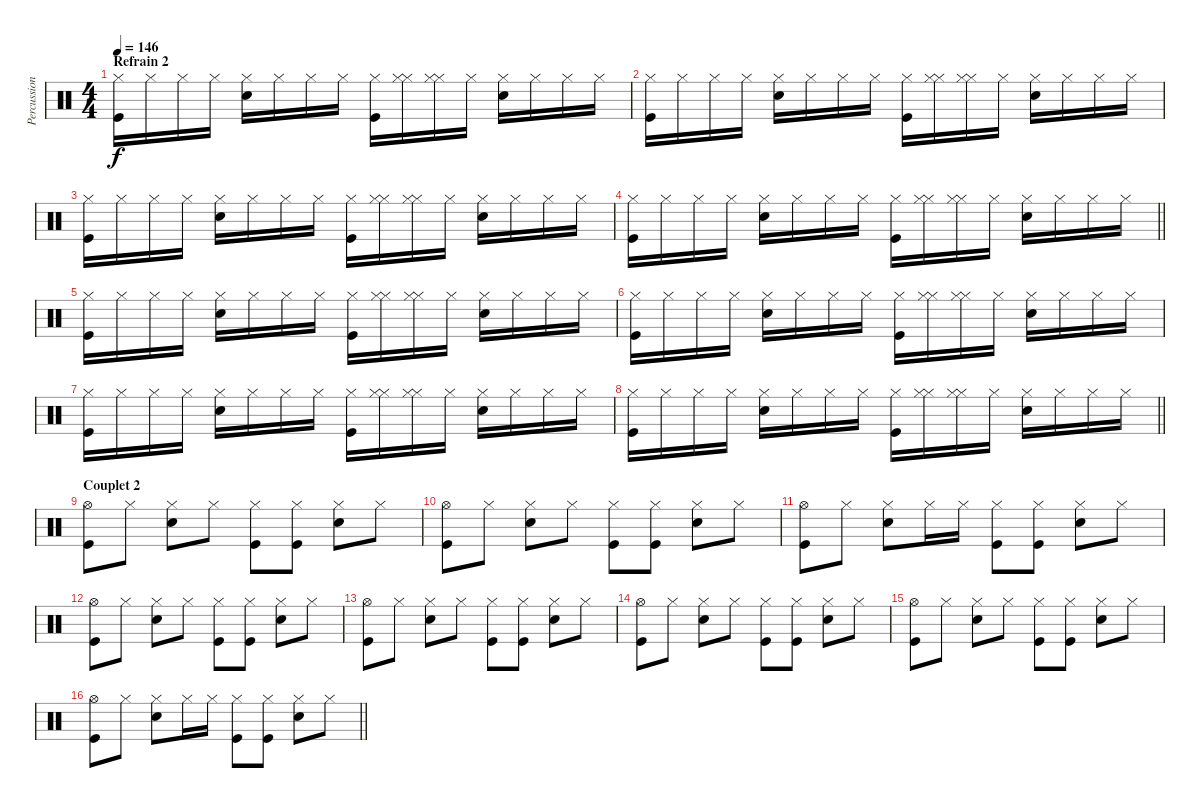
\track ("Percussions" "Percussion") {instrument percussion}
\staff {score}
\articulation defaults
\ts (4 4)
\section ("" "Refrain 2")
\tempo 146
\clef neutral
\ks c
("Hi-Hat (closed)" "Kick (hit)").16{dy f} "Hi-Hat (closed)".16 "Hi-Hat (closed)".16 "Hi-Hat (closed)".16 ("Hi-Hat (closed)" "Snare (hit) 2").16 "Hi-Hat (closed)".16 "Hi-Hat (closed)".16 "Hi-Hat (closed)".16 ("Hi-Hat (closed)" "Kick (hit)").16 ("Hi-Hat (closed)" "Hi-Hat (closed)").16 ("Hi-Hat (closed)" "Hi-Hat (closed)").16 "Hi-Hat (closed)".16 ("Hi-Hat (closed)" "Snare (hit) 2").16 "Hi-Hat (closed)".16 "Hi-Hat (closed)".16 "Hi-Hat (closed)".16 |
("Hi-Hat (closed)" "Kick (hit)").16 "Hi-Hat (closed)".16 "Hi-Hat (closed)".16 "Hi-Hat (closed)".16 ("Hi-Hat (closed)" "Snare (hit) 2").16 "Hi-Hat (closed)".16 "Hi-Hat (closed)".16 "Hi-Hat (closed)".16 ("Hi-Hat (closed)" "Kick (hit)").16 ("Hi-Hat (closed)" "Hi-Hat (closed)").16 ("Hi-Hat (closed)" "Hi-Hat (closed)").16 "Hi-Hat (closed)".16 ("Hi-Hat (closed)" "Snare (hit) 2").16 "Hi-Hat (closed)".16 "Hi-Hat (closed)".16 "Hi-Hat (closed)".16 |
("Hi-Hat (closed)" "Kick (hit)").16 "Hi-Hat (closed)".16 "Hi-Hat (closed)".16 "Hi-Hat (closed)".16 ("Hi-Hat (closed)" "Snare (hit) 2").16 "Hi-Hat (closed)".16 "Hi-Hat (closed)".16 "Hi-Hat (closed)".16 ("Hi-Hat (closed)" "Kick (hit)").16 ("Hi-Hat (closed)" "Hi-Hat (closed)").16 ("Hi-Hat (closed)" "Hi-Hat (closed)").16 "Hi-Hat (closed)".16 ("Hi-Hat (closed)" "Snare (hit) 2").16 "Hi-Hat (closed)".16 "Hi-Hat (closed)".16 "Hi-Hat (closed)".16 |
\barLineRight lightlight
("Hi-Hat (closed)" "Kick (hit)").16 "Hi-Hat (closed)".16 "Hi-Hat (closed)".16 "Hi-Hat (closed)".16 ("Hi-Hat (closed)" "Snare (hit) 2").16 "Hi-Hat (closed)".16 "Hi-Hat (closed)".16 "Hi-Hat (closed)".16 ("Hi-Hat (closed)" "Kick (hit)").16 ("Hi-Hat (closed)" "Hi-Hat (closed)").16 ("Hi-Hat (closed)" "Hi-Hat (closed)").16 "Hi-Hat (closed)".16 ("Hi-Hat (closed)" "Snare (hit) 2").16 "Hi-Hat (closed)".16 "Hi-Hat (closed)".16 "Hi-Hat (closed)".16 |
("Hi-Hat (closed)" "Kick (hit)").16 "Hi-Hat (closed)".16 "Hi-Hat (closed)".16 "Hi-Hat (closed)".16 ("Hi-Hat (closed)" "Snare (hit) 2").16 "Hi-Hat (closed)".16 "Hi-Hat (closed)".16 "Hi-Hat (closed)".16 ("Hi-Hat (closed)" "Kick (hit)").16 ("Hi-Hat (closed)" "Hi-Hat (closed)").16 ("Hi-Hat (closed)" "Hi-Hat (closed)").16 "Hi-Hat (closed)".16 ("Hi-Hat (closed)" "Snare (hit) 2").16 "Hi-Hat (closed)".16 "Hi-Hat (closed)".16 "Hi-Hat (closed)".16 |
("Hi-Hat (closed)" "Kick (hit)").16 "Hi-Hat (closed)".16 "Hi-Hat (closed)".16 "Hi-Hat (closed)".16 ("Hi-Hat (closed)" "Snare (hit) 2").16 "Hi-Hat (closed)".16 "Hi-Hat (closed)".16 "Hi-Hat (closed)".16 ("Hi-Hat (closed)" "Kick (hit)").16 ("Hi-Hat (closed)" "Hi-Hat (closed)").16 ("Hi-Hat (closed)" "Hi-Hat (closed)").16 "Hi-Hat (closed)".16 ("Hi-Hat (closed)" "Snare (hit) 2").16 "Hi-Hat (closed)".16 "Hi-Hat (closed)".16 "Hi-Hat (closed)".16 |
("Hi-Hat (closed)" "Kick (hit)").16 "Hi-Hat (closed)".16 "Hi-Hat (closed)".16 "Hi-Hat (closed)".16 ("Hi-Hat (closed)" "Snare (hit) 2").16 "Hi-Hat (closed)".16 "Hi-Hat (closed)".16 "Hi-Hat (closed)".16 ("Hi-Hat (closed)" "Kick (hit)").16 ("Hi-Hat (closed)" "Hi-Hat (closed)").16 ("Hi-Hat (closed)" "Hi-Hat (closed)").16 "Hi-Hat (closed)".16 ("Hi-Hat (closed)" "Snare (hit) 2").16 "Hi-Hat (closed)".16 "Hi-Hat (closed)".16 "Hi-Hat (closed)".16 |
\barLineRight lightlight
("Hi-Hat (closed)" "Kick (hit)").16 "Hi-Hat (closed)".16 "Hi-Hat (closed)".16 "Hi-Hat (closed)".16 ("Hi-Hat (closed)" "Snare (hit) 2").16 "Hi-Hat (closed)".16 "Hi-Hat (closed)".16 "Hi-Hat (closed)".16 ("Hi-Hat (closed)" "Kick (hit)").16 ("Hi-Hat (closed)" "Hi-Hat (closed)").16 ("Hi-Hat (closed)" "Hi-Hat (closed)").16 "Hi-Hat (closed)".16 ("Hi-Hat (closed)" "Snare (hit) 2").16 "Hi-Hat (closed)".16 "Hi-Hat (closed)".16 "Hi-Hat (closed)".16 |
\section ("" "Couplet 2")
("Hi-Hat (open)" "Kick (hit)").8 "Hi-Hat (closed)".8 ("Hi-Hat (closed)" "Snare (hit) 2").8 "Hi-Hat (closed)".8 ("Hi-Hat (closed)" "Kick (hit)").8 ("Hi-Hat (closed)" "Kick (hit)").8 ("Hi-Hat (closed)" "Snare (hit) 2").8 "Hi-Hat (closed)".8 |
("Hi-Hat (open)" "Kick (hit)").8 "Hi-Hat (closed)".8 ("Hi-Hat (closed)" "Snare (hit) 2").8 "Hi-Hat (closed)".8 ("Hi-Hat (closed)" "Kick (hit)").8 ("Hi-Hat (closed)" "Kick (hit)").8 ("Hi-Hat (closed)" "Snare (hit) 2").8 "Hi-Hat (closed)".8 |
("Hi-Hat (open)" "Kick (hit)").8 "Hi-Hat (closed)".8 ("Hi-Hat (closed)" "Snare (hit) 2").8 "Hi-Hat (closed)".16 "Hi-Hat (closed)".16 ("Hi-Hat (closed)" "Kick (hit)").8 ("Hi-Hat (closed)" "Kick (hit)").8 ("Hi-Hat (closed)" "Snare (hit) 2").8 "Hi-Hat (closed)".8 |
("Hi-Hat (open)" "Kick (hit)").8 "Hi-Hat (closed)".8 ("Hi-Hat (closed)" "Snare (hit) 2").8 "Hi-Hat (closed)".8 ("Hi-Hat (closed)" "Kick (hit)").8 ("Hi-Hat (closed)" "Kick (hit)").8 ("Hi-Hat (closed)" "Snare (hit) 2").8 "Hi-Hat (closed)".8 |
("Hi-Hat (open)" "Kick (hit)").8 "Hi-Hat (closed)".8 ("Hi-Hat (closed)" "Snare (hit) 2").8 "Hi-Hat (closed)".8 ("Hi-Hat (closed)" "Kick (hit)").8 ("Hi-Hat (closed)" "Kick (hit)").8 ("Hi-Hat (closed)" "Snare (hit) 2").8 "Hi-Hat (closed)".8 |
("Hi-Hat (open)" "Kick (hit)").8 "Hi-Hat (closed)".8 ("Hi-Hat (closed)" "Snare (hit) 2").8 "Hi-Hat (closed)".8 ("Hi-Hat (closed)" "Kick (hit)").8 ("Hi-Hat (closed)" "Kick (hit)").8 ("Hi-Hat (closed)" "Snare (hit) 2").8 "Hi-Hat (closed)".8 |
("Hi-Hat (open)" "Kick (hit)").8 "Hi-Hat (closed)".8 ("Hi-Hat (closed)" "Snare (hit) 2").8 "Hi-Hat (closed)".8 ("Hi-Hat (closed)" "Kick (hit)").8 ("Hi-Hat (closed)" "Kick (hit)").8 ("Hi-Hat (closed)" "Snare (hit) 2").8 "Hi-Hat (closed)".8 |
\barLineRight lightlight
("Hi-Hat (open)" "Kick (hit)").8 "Hi-Hat (closed)".8 ("Hi-Hat (closed)" "Snare (hit) 2").8 "Hi-Hat (closed)".16 "Hi-Hat (closed)".16 ("Hi-Hat (closed)" "Kick (hit)").8 ("Hi-Hat (closed)" "Kick (hit)").8 ("Hi-Hat (closed)" "Snare (hit) 2").8 "Hi-Hat (closed)".8
